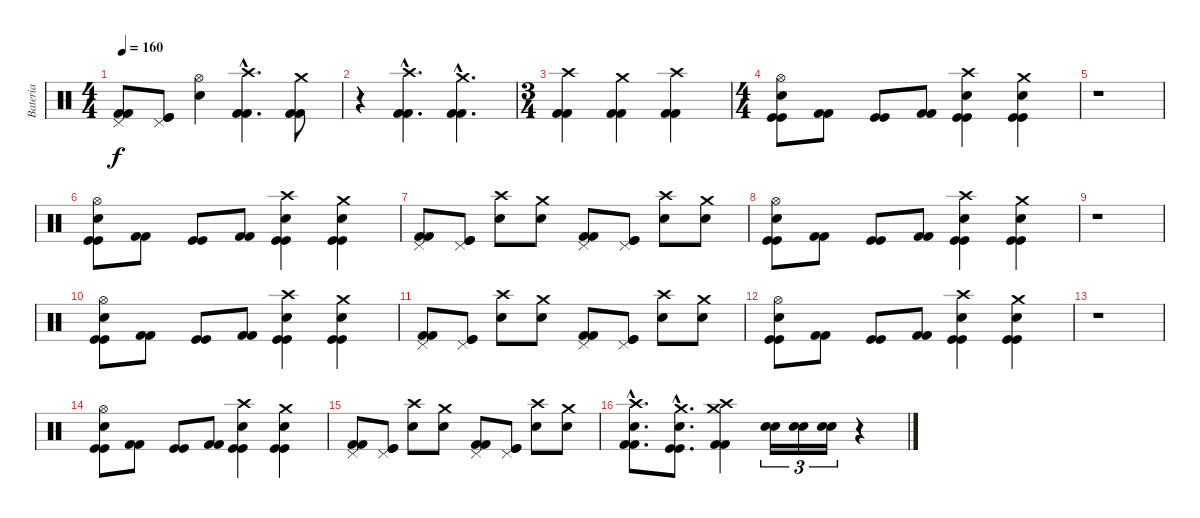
\track ("Bateria" "Bateria") {instrument percussion}
\staff {score}
\articulation defaults
\ts (4 4)
\tempo 160
\clef neutral
\ks c
("Kick (hit) 2" "Kick (hit) 2" "Pedal Hi-Hat (hit)").8{dy f} ("Kick (hit)" "Kick (hit)" "Pedal Hi-Hat (hit)").8 ("Snare (hit) 2" "Hi-Hat (open)").4 ("Kick (hit) 2"{hac} "Kick (hit) 2"{hac} "Crash high (hit)"{hac}).4{d} ("Kick (hit) 2" "Kick (hit) 2" "Crash medium (hit)").8 |
r.4 ("Kick (hit) 2"{hac} "Kick (hit) 2"{hac} "Crash high (hit)"{hac}).4{d} ("Kick (hit) 2"{hac} "Kick (hit) 2"{hac} "Crash medium (hit)"{hac}).4{d} |
\ts (3 4)
("Kick (hit) 2" "Kick (hit) 2" "Crash high (hit)").4 ("Kick (hit) 2" "Kick (hit) 2" "Crash medium (hit)").4 ("Kick (hit) 2" "Kick (hit) 2" "Crash high (hit)").4 |
\ts (4 4)
("Kick (hit)" "Kick (hit)" "Snare (hit) 2" "Hi-Hat (open)").8 ("Kick (hit) 2" "Kick (hit) 2").8 ("Kick (hit)" "Kick (hit)").8 ("Kick (hit) 2" "Kick (hit) 2").8 ("Kick (hit)" "Kick (hit)" "Snare (hit) 2" "Crash high (hit)").4 ("Kick (hit)" "Kick (hit)" "Snare (hit) 2" "Crash medium (hit)").4 |
r.1 |
("Kick (hit)" "Kick (hit)" "Snare (hit) 2" "Hi-Hat (open)").8 ("Kick (hit) 2" "Kick (hit) 2").8 ("Kick (hit)" "Kick (hit)").8 ("Kick (hit) 2" "Kick (hit) 2").8 ("Kick (hit)" "Kick (hit)" "Snare (hit) 2" "Crash high (hit)").4 ("Kick (hit)" "Kick (hit)" "Snare (hit) 2" "Crash medium (hit)").4 |
("Kick (hit) 2" "Kick (hit) 2" "Pedal Hi-Hat (hit)").8 ("Kick (hit)" "Kick (hit)" "Pedal Hi-Hat (hit)").8 ("Snare (hit) 2" "Crash high (hit)").8 ("Snare (hit) 2" "Crash medium (hit)").8 ("Kick (hit) 2" "Kick (hit) 2" "Pedal Hi-Hat (hit)").8 ("Kick (hit)" "Kick (hit)" "Pedal Hi-Hat (hit)").8 ("Snare (hit) 2" "Crash high (hit)").8 ("Snare (hit) 2" "Crash medium (hit)").8 |
("Kick (hit)" "Kick (hit)" "Snare (hit) 2" "Hi-Hat (open)").8 ("Kick (hit) 2" "Kick (hit) 2").8 ("Kick (hit)" "Kick (hit)").8 ("Kick (hit) 2" "Kick (hit) 2").8 ("Kick (hit)" "Kick (hit)" "Snare (hit) 2" "Crash high (hit)").4 ("Kick (hit)" "Kick (hit)" "Snare (hit) 2" "Crash medium (hit)").4 |
r.1 |
("Kick (hit)" "Kick (hit)" "Snare (hit) 2" "Hi-Hat (open)").8 ("Kick (hit) 2" "Kick (hit) 2").8 ("Kick (hit)" "Kick (hit)").8 ("Kick (hit) 2" "Kick (hit) 2").8 ("Kick (hit)" "Kick (hit)" "Snare (hit) 2" "Crash high (hit)").4 ("Kick (hit)" "Kick (hit)" "Snare (hit) 2" "Crash medium (hit)").4 |
("Kick (hit) 2" "Kick (hit) 2" "Pedal Hi-Hat (hit)").8 ("Kick (hit)" "Kick (hit)" "Pedal Hi-Hat (hit)").8 ("Snare (hit) 2" "Crash high (hit)").8 ("Snare (hit) 2" "Crash medium (hit)").8 ("Kick (hit) 2" "Kick (hit) 2" "Pedal Hi-Hat (hit)").8 ("Kick (hit)" "Kick (hit)" "Pedal Hi-Hat (hit)").8 ("Snare (hit) 2" "Crash high (hit)").8 ("Snare (hit) 2" "Crash medium (hit)").8 |
("Kick (hit)" "Kick (hit)" "Snare (hit) 2" "Hi-Hat (open)").8 ("Kick (hit) 2" "Kick (hit) 2").8 ("Kick (hit)" "Kick (hit)").8 ("Kick (hit) 2" "Kick (hit) 2").8 ("Kick (hit)" "Kick (hit)" "Snare (hit) 2" "Crash high (hit)").4 ("Kick (hit)" "Kick (hit)" "Snare (hit) 2" "Crash medium (hit)").4 |
r.1 |
("Kick (hit)" "Kick (hit)" "Snare (hit) 2" "Hi-Hat (open)").8 ("Kick (hit) 2" "Kick (hit) 2").8 ("Kick (hit)" "Kick (hit)").8 ("Kick (hit) 2" "Kick (hit) 2").8 ("Kick (hit)" "Kick (hit)" "Snare (hit) 2" "Crash high (hit)").4 ("Kick (hit)" "Kick (hit)" "Snare (hit) 2" "Crash medium (hit)").4 |
("Kick (hit) 2" "Kick (hit) 2" "Pedal Hi-Hat (hit)").8 ("Kick (hit)" "Kick (hit)" "Pedal Hi-Hat (hit)").8 ("Snare (hit) 2" "Crash high (hit)").8 ("Snare (hit) 2" "Crash medium (hit)").8 ("Kick (hit) 2" "Kick (hit) 2" "Pedal Hi-Hat (hit)").8 ("Kick (hit)" "Kick (hit)" "Pedal Hi-Hat (hit)").8 ("Snare (hit) 2" "Crash high (hit)").8 ("Snare (hit) 2" "Crash medium (hit)").8 |
("Kick (hit) 2"{hac} "Kick (hit) 2"{hac} "Snare (hit) 2"{hac} "Crash high (hit)"{hac}).8{d} ("Kick (hit)"{hac} "Kick (hit)"{hac} "Snare (hit) 2"{hac} "Crash medium (hit)"{hac}).8{d} ("Kick (hit) 2" "Kick (hit) 2" "Crash medium (hit)" "Crash high (hit)").4 ("Snare (hit) 2" "Snare (hit) 2").16{tu (3 2)} ("Snare (hit) 2" "Snare (hit) 2").16{tu (3 2)} ("Snare (hit) 2" "Snare (hit) 2").16{tu (3 2)} r.4
